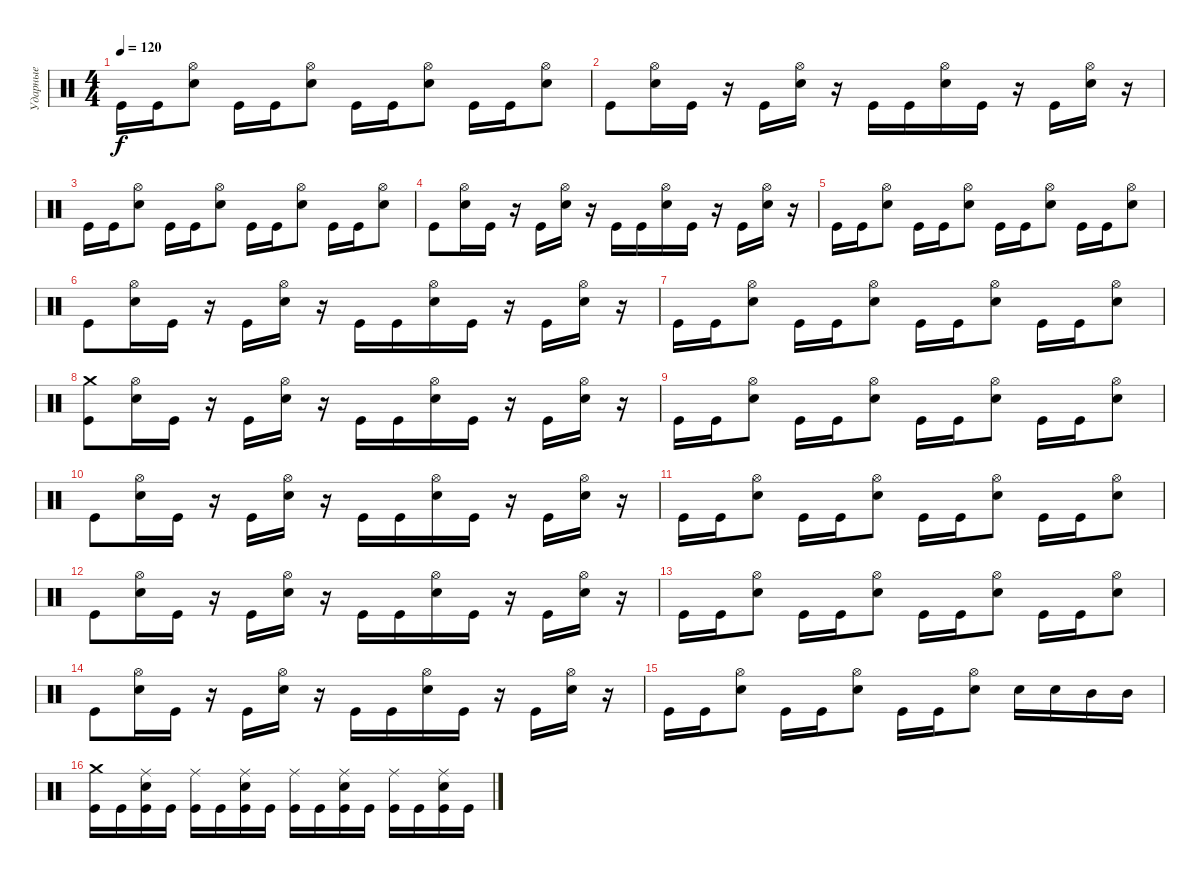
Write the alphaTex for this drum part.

\track ("Ударные" "Ударные") {instrument percussion}
\staff {score}
\articulation defaults
\ts (4 4)
\tempo 120
\clef neutral
\ks c "Kick (hit)".16{dy f} "Kick (hit)".16
("Snare (hit) 2" "Hi-Hat (open)").8 "Kick (hit)".16 "Kick (hit)".16 ("Snare (hit) 2" "Hi-Hat (open)").8 "Kick (hit)".16 "Kick (hit)".16 ("Snare (hit) 2" "Hi-Hat (open)").8 "Kick (hit)".16 "Kick (hit)".16 ("Snare (hit) 2" "Hi-Hat (open)").8 |
"Kick (hit)".8 ("Snare (hit) 2" "Hi-Hat (open)").16 "Kick (hit)".16 r.16 "Kick (hit)".16 ("Snare (hit) 2" "Hi-Hat (open)").16 r.16 "Kick (hit)".16 "Kick (hit)".16 ("Snare (hit) 2" "Hi-Hat (open)").16 "Kick (hit)".16 r.16 "Kick (hit)".16 ("Snare (hit) 2" "Hi-Hat (open)").16 r.16 |
"Kick (hit)".16 "Kick (hit)".16 ("Snare (hit) 2" "Hi-Hat (open)").8 "Kick (hit)".16 "Kick (hit)".16 ("Snare (hit) 2" "Hi-Hat (open)").8 "Kick (hit)".16 "Kick (hit)".16 ("Snare (hit) 2" "Hi-Hat (open)").8 "Kick (hit)".16 "Kick (hit)".16 ("Snare (hit) 2" "Hi-Hat (open)").8 |
"Kick (hit)".8 ("Snare (hit) 2" "Hi-Hat (open)").16 "Kick (hit)".16 r.16 "Kick (hit)".16 ("Snare (hit) 2" "Hi-Hat (open)").16 r.16 "Kick (hit)".16 "Kick (hit)".16 ("Snare (hit) 2" "Hi-Hat (open)").16 "Kick (hit)".16 r.16 "Kick (hit)".16 ("Snare (hit) 2" "Hi-Hat (open)").16 r.16 |
"Kick (hit)".16 "Kick (hit)".16 ("Snare (hit) 2" "Hi-Hat (open)").8 "Kick (hit)".16 "Kick (hit)".16 ("Snare (hit) 2" "Hi-Hat (open)").8 "Kick (hit)".16 "Kick (hit)".16 ("Snare (hit) 2" "Hi-Hat (open)").8 "Kick (hit)".16 "Kick (hit)".16 ("Snare (hit) 2" "Hi-Hat (open)").8 |
"Kick (hit)".8 ("Snare (hit) 2" "Hi-Hat (open)").16 "Kick (hit)".16 r.16 "Kick (hit)".16 ("Snare (hit) 2" "Hi-Hat (open)").16 r.16 "Kick (hit)".16 "Kick (hit)".16 ("Snare (hit) 2" "Hi-Hat (open)").16 "Kick (hit)".16 r.16 "Kick (hit)".16 ("Snare (hit) 2" "Hi-Hat (open)").16 r.16 |
"Kick (hit)".16 "Kick (hit)".16 ("Snare (hit) 2" "Hi-Hat (open)").8 "Kick (hit)".16 "Kick (hit)".16 ("Snare (hit) 2" "Hi-Hat (open)").8 "Kick (hit)".16 "Kick (hit)".16 ("Snare (hit) 2" "Hi-Hat (open)").8 "Kick (hit)".16 "Kick (hit)".16 ("Snare (hit) 2" "Hi-Hat (open)").8 |
("Kick (hit)" "Crash medium (hit)").8 ("Snare (hit) 2" "Hi-Hat (open)").16 "Kick (hit)".16 r.16 "Kick (hit)".16 ("Snare (hit) 2" "Hi-Hat (open)").16 r.16 "Kick (hit)".16 "Kick (hit)".16 ("Snare (hit) 2" "Hi-Hat (open)").16 "Kick (hit)".16 r.16 "Kick (hit)".16 ("Snare (hit) 2" "Hi-Hat (open)").16 r.16 |
"Kick (hit)".16 "Kick (hit)".16 ("Snare (hit) 2" "Hi-Hat (open)").8 "Kick (hit)".16 "Kick (hit)".16 ("Snare (hit) 2" "Hi-Hat (open)").8 "Kick (hit)".16 "Kick (hit)".16 ("Snare (hit) 2" "Hi-Hat (open)").8 "Kick (hit)".16 "Kick (hit)".16 ("Snare (hit) 2" "Hi-Hat (open)").8 |
"Kick (hit)".8 ("Snare (hit) 2" "Hi-Hat (open)").16 "Kick (hit)".16 r.16 "Kick (hit)".16 ("Snare (hit) 2" "Hi-Hat (open)").16 r.16 "Kick (hit)".16 "Kick (hit)".16 ("Snare (hit) 2" "Hi-Hat (open)").16 "Kick (hit)".16 r.16 "Kick (hit)".16 ("Snare (hit) 2" "Hi-Hat (open)").16 r.16 |
"Kick (hit)".16 "Kick (hit)".16 ("Snare (hit) 2" "Hi-Hat (open)").8 "Kick (hit)".16 "Kick (hit)".16 ("Snare (hit) 2" "Hi-Hat (open)").8 "Kick (hit)".16 "Kick (hit)".16 ("Snare (hit) 2" "Hi-Hat (open)").8 "Kick (hit)".16 "Kick (hit)".16 ("Snare (hit) 2" "Hi-Hat (open)").8 |
"Kick (hit)".8 ("Snare (hit) 2" "Hi-Hat (open)").16 "Kick (hit)".16 r.16 "Kick (hit)".16 ("Snare (hit) 2" "Hi-Hat (open)").16 r.16 "Kick (hit)".16 "Kick (hit)".16 ("Snare (hit) 2" "Hi-Hat (open)").16 "Kick (hit)".16 r.16 "Kick (hit)".16 ("Snare (hit) 2" "Hi-Hat (open)").16 r.16 |
"Kick (hit)".16 "Kick (hit)".16 ("Snare (hit) 2" "Hi-Hat (open)").8 "Kick (hit)".16 "Kick (hit)".16 ("Snare (hit) 2" "Hi-Hat (open)").8 "Kick (hit)".16 "Kick (hit)".16 ("Snare (hit) 2" "Hi-Hat (open)").8 "Kick (hit)".16 "Kick (hit)".16 ("Snare (hit) 2" "Hi-Hat (open)").8 |
"Kick (hit)".8 ("Snare (hit) 2" "Hi-Hat (open)").16 "Kick (hit)".16 r.16 "Kick (hit)".16 ("Snare (hit) 2" "Hi-Hat (open)").16 r.16 "Kick (hit)".16 "Kick (hit)".16 ("Snare (hit) 2" "Hi-Hat (open)").16 "Kick (hit)".16 r.16 "Kick (hit)".16 ("Snare (hit) 2" "Hi-Hat (open)").16 r.16 |
"Kick (hit)".16 "Kick (hit)".16 ("Snare (hit) 2" "Hi-Hat (open)").8 "Kick (hit)".16 "Kick (hit)".16 ("Snare (hit) 2" "Hi-Hat (open)").8 "Kick (hit)".16 "Kick (hit)".16 ("Snare (hit) 2" "Hi-Hat (open)").8 "Snare (hit) 2".16 "Snare (hit) 2".16 "Mid Tom (hit)".16 "Mid Tom (hit)".16 |
("Kick (hit)" "Crash medium (hit)").16 "Kick (hit)".16 ("Kick (hit)" "Snare (hit) 2" "Ride (middle)").16 "Kick (hit)".16 ("Kick (hit)" "Ride (middle)").16 "Kick (hit)".16 ("Kick (hit)" "Snare (hit) 2" "Ride (middle)").16 "Kick (hit)".16 ("Kick (hit)" "Ride (middle)").16 "Kick (hit)".16 ("Kick (hit)" "Snare (hit) 2" "Ride (middle)").16 "Kick (hit)".16 ("Kick (hit)" "Ride (middle)").16 "Kick (hit)".16 ("Kick (hit)" "Snare (hit) 2" "Ride (middle)").16 "Kick (hit)".16
